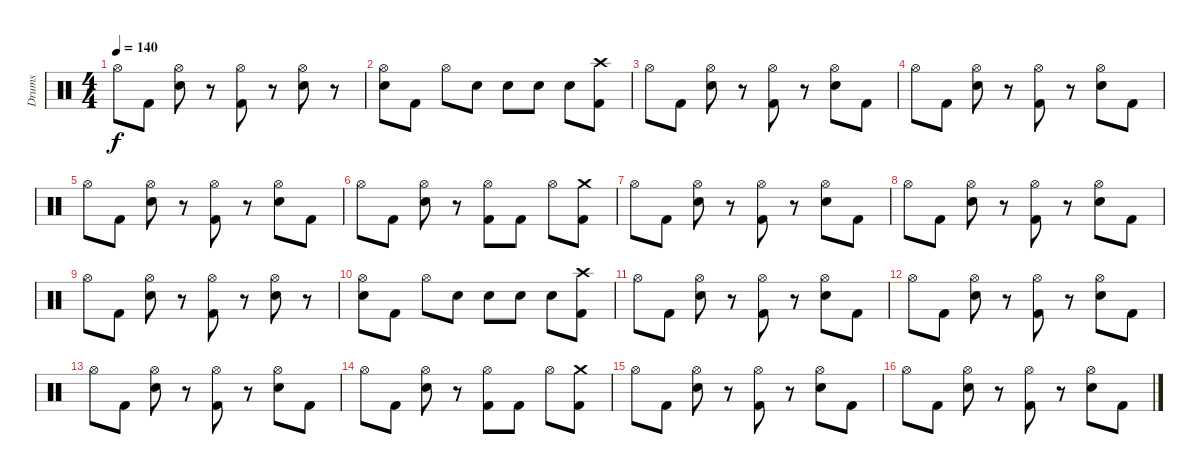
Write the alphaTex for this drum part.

\track ("Drums" "Drums") {instrument percussion}
\staff {score}
\articulation defaults
\ts (4 4)
\tempo 140
\clef neutral
\ks c "Hi-Hat (open)".8{dy f} "Kick (hit) 2".8
("Hi-Hat (open)" "Electric Snare (hit)").8 r.8 ("Hi-Hat (open)" "Kick (hit) 2").8 r.8 ("Hi-Hat (open)" "Electric Snare (hit)").8 r.8 |
("Hi-Hat (open)" "Electric Snare (hit)").8 "Kick (hit) 2".8 "Hi-Hat (open)".8 "Electric Snare (hit)".8 "Electric Snare (hit)".8 "Electric Snare (hit)".8 "Electric Snare (hit)".8 ("Crash high (hit)" "Kick (hit) 2").8 |
"Hi-Hat (open)".8 "Kick (hit) 2".8 ("Hi-Hat (open)" "Electric Snare (hit)").8 r.8 ("Hi-Hat (open)" "Kick (hit) 2").8 r.8 ("Hi-Hat (open)" "Electric Snare (hit)").8 "Kick (hit) 2".8 |
"Hi-Hat (open)".8 "Kick (hit) 2".8 ("Hi-Hat (open)" "Electric Snare (hit)").8 r.8 ("Hi-Hat (open)" "Kick (hit) 2").8 r.8 ("Hi-Hat (open)" "Electric Snare (hit)").8 "Kick (hit) 2".8 |
"Hi-Hat (open)".8 "Kick (hit) 2".8 ("Hi-Hat (open)" "Electric Snare (hit)").8 r.8 ("Hi-Hat (open)" "Kick (hit) 2").8 r.8 ("Hi-Hat (open)" "Electric Snare (hit)").8 "Kick (hit) 2".8 |
"Hi-Hat (open)".8 "Kick (hit) 2".8 ("Hi-Hat (open)" "Electric Snare (hit)").8 r.8 ("Hi-Hat (open)" "Kick (hit) 2").8 "Kick (hit) 2".8 "Hi-Hat (open)".8 ("Crash medium (hit)" "Kick (hit) 2").8 |
"Hi-Hat (open)".8 "Kick (hit) 2".8 ("Hi-Hat (open)" "Electric Snare (hit)").8 r.8 ("Hi-Hat (open)" "Kick (hit) 2").8 r.8 ("Hi-Hat (open)" "Electric Snare (hit)").8 "Kick (hit) 2".8 |
"Hi-Hat (open)".8 "Kick (hit) 2".8 ("Hi-Hat (open)" "Electric Snare (hit)").8 r.8 ("Hi-Hat (open)" "Kick (hit) 2").8 r.8 ("Hi-Hat (open)" "Electric Snare (hit)").8 "Kick (hit) 2".8 |
"Hi-Hat (open)".8 "Kick (hit) 2".8 ("Hi-Hat (open)" "Electric Snare (hit)").8 r.8 ("Hi-Hat (open)" "Kick (hit) 2").8 r.8 ("Hi-Hat (open)" "Electric Snare (hit)").8 r.8 |
("Hi-Hat (open)" "Electric Snare (hit)").8 "Kick (hit) 2".8 "Hi-Hat (open)".8 "Electric Snare (hit)".8 "Electric Snare (hit)".8 "Electric Snare (hit)".8 "Electric Snare (hit)".8 ("Crash high (hit)" "Kick (hit) 2").8 |
"Hi-Hat (open)".8 "Kick (hit) 2".8 ("Hi-Hat (open)" "Electric Snare (hit)").8 r.8 ("Hi-Hat (open)" "Kick (hit) 2").8 r.8 ("Hi-Hat (open)" "Electric Snare (hit)").8 "Kick (hit) 2".8 |
"Hi-Hat (open)".8 "Kick (hit) 2".8 ("Hi-Hat (open)" "Electric Snare (hit)").8 r.8 ("Hi-Hat (open)" "Kick (hit) 2").8 r.8 ("Hi-Hat (open)" "Electric Snare (hit)").8 "Kick (hit) 2".8 |
"Hi-Hat (open)".8 "Kick (hit) 2".8 ("Hi-Hat (open)" "Electric Snare (hit)").8 r.8 ("Hi-Hat (open)" "Kick (hit) 2").8 r.8 ("Hi-Hat (open)" "Electric Snare (hit)").8 "Kick (hit) 2".8 |
"Hi-Hat (open)".8 "Kick (hit) 2".8 ("Hi-Hat (open)" "Electric Snare (hit)").8 r.8 ("Hi-Hat (open)" "Kick (hit) 2").8 "Kick (hit) 2".8 "Hi-Hat (open)".8 ("Crash medium (hit)" "Kick (hit) 2").8 |
"Hi-Hat (open)".8 "Kick (hit) 2".8 ("Hi-Hat (open)" "Electric Snare (hit)").8 r.8 ("Hi-Hat (open)" "Kick (hit) 2").8 r.8 ("Hi-Hat (open)" "Electric Snare (hit)").8 "Kick (hit) 2".8 |
"Hi-Hat (open)".8 "Kick (hit) 2".8 ("Hi-Hat (open)" "Electric Snare (hit)").8 r.8 ("Hi-Hat (open)" "Kick (hit) 2").8 r.8 ("Hi-Hat (open)" "Electric Snare (hit)").8 "Kick (hit) 2".8
